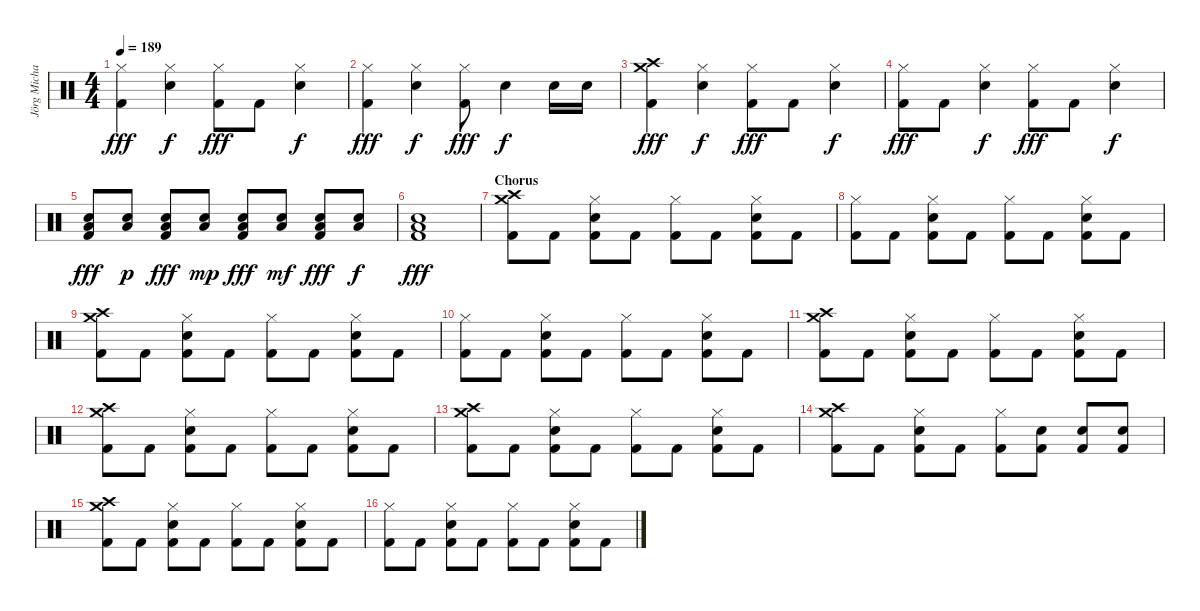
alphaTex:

\track ("Jörg Michael" "Jörg Micha") {instrument percussion}
\staff {score}
\articulation defaults
\ts (4 4)
\tempo 189
\clef neutral
\ks c
("Hi-Hat (closed)" "Kick (hit) 2").4{dy fff} ("Hi-Hat (closed)" "Electric Snare (hit)").4{dy f} ("Hi-Hat (closed)" "Kick (hit) 2").8{dy fff} "Kick (hit) 2".8 ("Hi-Hat (closed)" "Electric Snare (hit)").4{dy f} |
("Hi-Hat (closed)" "Kick (hit) 2").4{dy fff} ("Hi-Hat (closed)" "Electric Snare (hit)").4{dy f} ("Hi-Hat (closed)" "Kick (hit) 2").8{dy fff} "Electric Snare (hit)".4{dy f} "Electric Snare (hit)".16 "Electric Snare (hit)".16 |
("Crash medium (hit)" "Crash high (hit)" "Kick (hit) 2").4{dy fff} ("Hi-Hat (closed)" "Electric Snare (hit)").4{dy f} ("Hi-Hat (closed)" "Kick (hit) 2").8{dy fff} "Kick (hit) 2".8 ("Hi-Hat (closed)" "Electric Snare (hit)").4{dy f} |
("Hi-Hat (closed)" "Kick (hit) 2").8{dy fff} "Kick (hit) 2".8 ("Hi-Hat (closed)" "Electric Snare (hit)").4{dy f} ("Hi-Hat (closed)" "Kick (hit) 2").8{dy fff} "Kick (hit) 2".8 ("Hi-Hat (closed)" "Electric Snare (hit)").4{dy f} |
("Electric Snare (hit)" "Low Floor Tom (hit)" "Kick (hit) 2").8{dy fff} ("Electric Snare (hit)" "Low Floor Tom (hit)").8{dy p} ("Electric Snare (hit)" "Low Floor Tom (hit)" "Kick (hit) 2").8{dy fff} ("Electric Snare (hit)" "Low Floor Tom (hit)").8{dy mp} ("Electric Snare (hit)" "Low Floor Tom (hit)" "Kick (hit) 2").8{dy fff} ("Electric Snare (hit)" "Low Floor Tom (hit)").8{dy mf} ("Electric Snare (hit)" "Low Floor Tom (hit)" "Kick (hit) 2").8{dy fff} ("Electric Snare (hit)" "Low Floor Tom (hit)").8{dy f} |
("Electric Snare (hit)" "Low Floor Tom (hit)" "Kick (hit) 2").1{dy fff} |
\section ("" "Chorus")
("Crash high (hit)" "Crash medium (hit)" "Kick (hit) 2").8 "Kick (hit) 2".8 ("Hi-Hat (closed)" "Electric Snare (hit)" "Kick (hit) 2").8 "Kick (hit) 2".8 ("Hi-Hat (closed)" "Kick (hit) 2").8 "Kick (hit) 2".8 ("Hi-Hat (closed)" "Electric Snare (hit)" "Kick (hit) 2").8 "Kick (hit) 2".8 |
("Hi-Hat (closed)" "Kick (hit) 2").8 "Kick (hit) 2".8 ("Hi-Hat (closed)" "Electric Snare (hit)" "Kick (hit) 2").8 "Kick (hit) 2".8 ("Hi-Hat (closed)" "Kick (hit) 2").8 "Kick (hit) 2".8 ("Hi-Hat (closed)" "Electric Snare (hit)" "Kick (hit) 2").8 "Kick (hit) 2".8 |
("Crash high (hit)" "Crash medium (hit)" "Kick (hit) 2").8 "Kick (hit) 2".8 ("Hi-Hat (closed)" "Electric Snare (hit)" "Kick (hit) 2").8 "Kick (hit) 2".8 ("Hi-Hat (closed)" "Kick (hit) 2").8 "Kick (hit) 2".8 ("Hi-Hat (closed)" "Electric Snare (hit)" "Kick (hit) 2").8 "Kick (hit) 2".8 |
("Hi-Hat (closed)" "Kick (hit) 2").8 "Kick (hit) 2".8 ("Hi-Hat (closed)" "Electric Snare (hit)" "Kick (hit) 2").8 "Kick (hit) 2".8 ("Hi-Hat (closed)" "Kick (hit) 2").8 "Kick (hit) 2".8 ("Hi-Hat (closed)" "Electric Snare (hit)" "Kick (hit) 2").8 "Kick (hit) 2".8 |
("Crash high (hit)" "Crash medium (hit)" "Kick (hit) 2").8 "Kick (hit) 2".8 ("Hi-Hat (closed)" "Electric Snare (hit)" "Kick (hit) 2").8 "Kick (hit) 2".8 ("Hi-Hat (closed)" "Kick (hit) 2").8 "Kick (hit) 2".8 ("Hi-Hat (closed)" "Electric Snare (hit)" "Kick (hit) 2").8 "Kick (hit) 2".8 |
("Crash high (hit)" "Crash medium (hit)" "Kick (hit) 2").8 "Kick (hit) 2".8 ("Hi-Hat (closed)" "Electric Snare (hit)" "Kick (hit) 2").8 "Kick (hit) 2".8 ("Hi-Hat (closed)" "Kick (hit) 2").8 "Kick (hit) 2".8 ("Hi-Hat (closed)" "Electric Snare (hit)" "Kick (hit) 2").8 "Kick (hit) 2".8 |
("Crash high (hit)" "Crash medium (hit)" "Kick (hit) 2").8 "Kick (hit) 2".8 ("Hi-Hat (closed)" "Electric Snare (hit)" "Kick (hit) 2").8 "Kick (hit) 2".8 ("Hi-Hat (closed)" "Kick (hit) 2").8 "Kick (hit) 2".8 ("Hi-Hat (closed)" "Electric Snare (hit)" "Kick (hit) 2").8 "Kick (hit) 2".8 |
("Crash high (hit)" "Crash medium (hit)" "Kick (hit) 2").8 "Kick (hit) 2".8 ("Hi-Hat (closed)" "Electric Snare (hit)" "Kick (hit) 2").8 "Kick (hit) 2".8 ("Hi-Hat (closed)" "Kick (hit) 2").8 ("Electric Snare (hit)" "Kick (hit) 2").8 ("Electric Snare (hit)" "Kick (hit) 2").8 ("Electric Snare (hit)" "Kick (hit) 2").8 |
("Crash high (hit)" "Crash medium (hit)" "Kick (hit) 2").8 "Kick (hit) 2".8 ("Hi-Hat (closed)" "Electric Snare (hit)" "Kick (hit) 2").8 "Kick (hit) 2".8 ("Hi-Hat (closed)" "Kick (hit) 2").8 "Kick (hit) 2".8 ("Hi-Hat (closed)" "Electric Snare (hit)" "Kick (hit) 2").8 "Kick (hit) 2".8 |
("Hi-Hat (closed)" "Kick (hit) 2").8 "Kick (hit) 2".8 ("Hi-Hat (closed)" "Electric Snare (hit)" "Kick (hit) 2").8 "Kick (hit) 2".8 ("Hi-Hat (closed)" "Kick (hit) 2").8 "Kick (hit) 2".8 ("Hi-Hat (closed)" "Electric Snare (hit)" "Kick (hit) 2").8 "Kick (hit) 2".8
